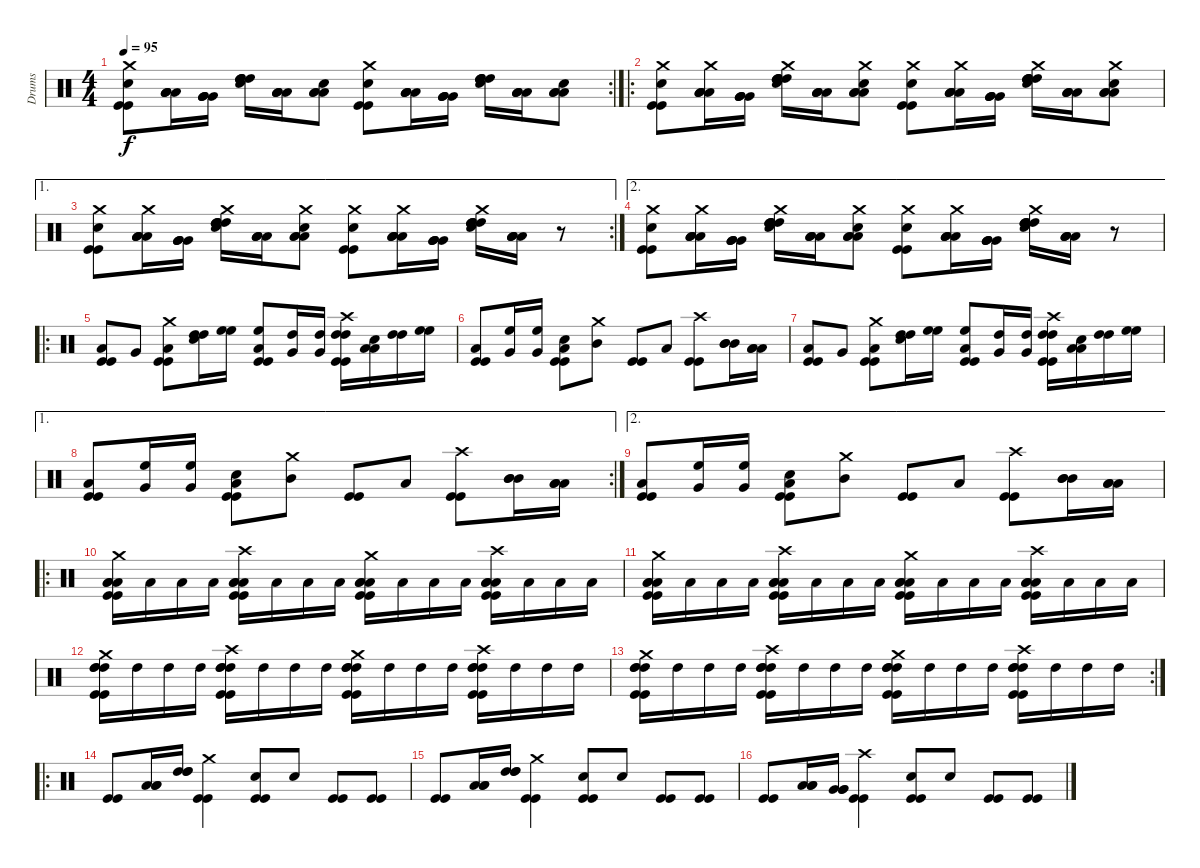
\track ("Drums" "Drums") {instrument percussion}
\staff {score}
\articulation defaults
\rc 2
\ts (4 4)
\tempo 95
\clef neutral
\ks c
("Crash medium (hit)" "Snare (hit) 2" "Kick (hit)" "Kick (hit)").8{dy f} ("Low Tom (hit)" "Low Tom (hit)" "Low Tom (hit)" "Low Tom (hit)").16 ("Very Low Tom (hit)" "Very Low Tom (hit)" "Very Low Tom (hit)" "Very Low Tom (hit)").16 ("High Tom (hit)" "High Tom (hit)" "High Tom (hit)" "High Tom (hit)" "Snare (hit) 2").16 ("Low Tom (hit)" "Low Tom (hit)" "Low Tom (hit)" "Low Tom (hit)").16 ("Snare (hit)" "Low Floor Tom (hit)" "Low Floor Tom (hit)" "Low Floor Tom (hit)").8 ("Crash medium (hit)" "Snare (hit) 2" "Kick (hit)" "Kick (hit)").8 ("Low Tom (hit)" "Low Tom (hit)" "Low Tom (hit)" "Low Tom (hit)").16 ("Very Low Tom (hit)" "Very Low Tom (hit)" "Very Low Tom (hit)" "Very Low Tom (hit)").16 ("High Tom (hit)" "High Tom (hit)" "High Tom (hit)" "High Tom (hit)" "Snare (hit) 2").16 ("Low Tom (hit)" "Low Tom (hit)" "Low Tom (hit)" "Low Tom (hit)").16 ("Snare (hit)" "Low Floor Tom (hit)" "Low Floor Tom (hit)" "Low Floor Tom (hit)").8 |
\ro
("Crash medium (hit)" "Snare (hit) 2" "Kick (hit)" "Kick (hit)").8 ("Crash medium (hit)" "Low Tom (hit)" "Low Tom (hit)" "Low Tom (hit)" "Low Tom (hit)").16 ("Very Low Tom (hit)" "Very Low Tom (hit)" "Very Low Tom (hit)" "Very Low Tom (hit)").16 ("Crash medium (hit)" "High Tom (hit)" "High Tom (hit)" "High Tom (hit)" "High Tom (hit)" "Snare (hit) 2").16 ("Low Tom (hit)" "Low Tom (hit)" "Low Tom (hit)" "Low Tom (hit)").16 ("Crash medium (hit)" "Snare (hit)" "Low Floor Tom (hit)" "Low Floor Tom (hit)" "Low Floor Tom (hit)").8 ("Crash medium (hit)" "Snare (hit) 2" "Kick (hit)" "Kick (hit)").8 ("Crash medium (hit)" "Low Tom (hit)" "Low Tom (hit)" "Low Tom (hit)" "Low Tom (hit)").16 ("Very Low Tom (hit)" "Very Low Tom (hit)" "Very Low Tom (hit)" "Very Low Tom (hit)").16 ("Crash medium (hit)" "High Tom (hit)" "High Tom (hit)" "High Tom (hit)" "High Tom (hit)" "Snare (hit) 2").16 ("Low Tom (hit)" "Low Tom (hit)" "Low Tom (hit)" "Low Tom (hit)").16 ("Crash medium (hit)" "Snare (hit)" "Low Floor Tom (hit)" "Low Floor Tom (hit)" "Low Floor Tom (hit)").8 |
\ae 1
\rc 2
("Crash medium (hit)" "Snare (hit) 2" "Kick (hit)" "Kick (hit)").8 ("Crash medium (hit)" "Low Tom (hit)" "Low Tom (hit)" "Low Tom (hit)" "Low Tom (hit)").16 ("Very Low Tom (hit)" "Very Low Tom (hit)" "Very Low Tom (hit)" "Very Low Tom (hit)").16 ("Crash medium (hit)" "High Tom (hit)" "High Tom (hit)" "High Tom (hit)" "High Tom (hit)" "Snare (hit) 2").16 ("Low Tom (hit)" "Low Tom (hit)" "Low Tom (hit)" "Low Tom (hit)").16 ("Crash medium (hit)" "Snare (hit)" "Low Floor Tom (hit)" "Low Floor Tom (hit)" "Low Floor Tom (hit)").8 ("Crash medium (hit)" "Snare (hit) 2" "Kick (hit)" "Kick (hit)").8 ("Crash medium (hit)" "Low Tom (hit)" "Low Tom (hit)" "Low Tom (hit)" "Low Tom (hit)").16 ("Very Low Tom (hit)" "Very Low Tom (hit)" "Very Low Tom (hit)" "Very Low Tom (hit)").16 ("Crash medium (hit)" "High Tom (hit)" "High Tom (hit)" "High Tom (hit)" "High Tom (hit)" "Snare (hit) 2").16 ("Low Tom (hit)" "Low Tom (hit)" "Low Tom (hit)" "Low Tom (hit)").16 r.8 |
\ae 2
("Crash medium (hit)" "Snare (hit) 2" "Kick (hit)" "Kick (hit)").8 ("Crash medium (hit)" "Low Tom (hit)" "Low Tom (hit)" "Low Tom (hit)" "Low Tom (hit)").16 ("Very Low Tom (hit)" "Very Low Tom (hit)" "Very Low Tom (hit)" "Very Low Tom (hit)").16 ("Crash medium (hit)" "High Tom (hit)" "High Tom (hit)" "High Tom (hit)" "High Tom (hit)" "Snare (hit) 2").16 ("Low Tom (hit)" "Low Tom (hit)" "Low Tom (hit)" "Low Tom (hit)").16 ("Crash medium (hit)" "Snare (hit)" "Low Floor Tom (hit)" "Low Floor Tom (hit)" "Low Floor Tom (hit)").8 ("Crash medium (hit)" "Snare (hit) 2" "Kick (hit)" "Kick (hit)").8 ("Crash medium (hit)" "Low Tom (hit)" "Low Tom (hit)" "Low Tom (hit)" "Low Tom (hit)").16 ("Very Low Tom (hit)" "Very Low Tom (hit)" "Very Low Tom (hit)" "Very Low Tom (hit)").16 ("Crash medium (hit)" "High Tom (hit)" "High Tom (hit)" "High Tom (hit)" "High Tom (hit)" "Snare (hit) 2").16 ("Low Tom (hit)" "Low Tom (hit)" "Low Tom (hit)" "Low Tom (hit)").16 r.8 |
\ro
("Low Tom (hit)" "Kick (hit)" "Kick (hit)").8 "Very Low Tom (hit)".8 ("Crash medium (hit)" "Low Tom (hit)" "Kick (hit)" "Kick (hit)").8 ("Snare (hit) 2" "High Tom (hit)" "High Tom (hit)").16 ("High Floor Tom (hit)" "High Floor Tom (hit)").16 ("Kick (hit)" "Low Tom (hit)" "High Floor Tom (hit)" "Kick (hit)").8 ("Very Low Tom (hit)" "High Tom (hit)").16 ("Very Low Tom (hit)" "High Tom (hit)").16 ("Kick (hit)" "Crash high (hit)" "High Tom (hit)" "High Tom (hit)" "Kick (hit)").16 ("Snare (hit) 2" "Low Tom (hit)" "Low Tom (hit)").16 ("High Tom (hit)" "High Tom (hit)").16 ("High Floor Tom (hit)" "High Floor Tom (hit)").16 |
("Low Tom (hit)" "Kick (hit)" "Kick (hit)").8 ("Very Low Tom (hit)" "High Floor Tom (hit)").16 ("Very Low Tom (hit)" "High Floor Tom (hit)").16 ("Snare (hit) 2" "Low Tom (hit)" "Kick (hit)" "Kick (hit)").8 ("Crash medium (hit)" "Mid Tom (hit)").8 ("Kick (hit)" "Kick (hit)").8 "Low Tom (hit)".8 ("Crash high (hit)" "Kick (hit)" "Kick (hit)").8 ("Mid Tom (hit)" "Mid Tom (hit)" "Mid Tom (hit)").16 ("Low Tom (hit)" "Low Tom (hit)" "Low Tom (hit)").16 |
("Low Tom (hit)" "Kick (hit)" "Kick (hit)").8 "Very Low Tom (hit)".8 ("Crash medium (hit)" "Low Tom (hit)" "Kick (hit)" "Kick (hit)").8 ("Snare (hit) 2" "High Tom (hit)" "High Tom (hit)").16 ("High Floor Tom (hit)" "High Floor Tom (hit)").16 ("Kick (hit)" "Low Tom (hit)" "High Floor Tom (hit)" "Kick (hit)").8 ("Very Low Tom (hit)" "High Tom (hit)").16 ("Very Low Tom (hit)" "High Tom (hit)").16 ("Kick (hit)" "Crash high (hit)" "High Tom (hit)" "High Tom (hit)" "Kick (hit)").16 ("Snare (hit) 2" "Low Tom (hit)" "Low Tom (hit)").16 ("High Tom (hit)" "High Tom (hit)").16 ("High Floor Tom (hit)" "High Floor Tom (hit)").16 |
\ae 1
\rc 2
("Low Tom (hit)" "Kick (hit)" "Kick (hit)").8 ("Very Low Tom (hit)" "High Floor Tom (hit)").16 ("Very Low Tom (hit)" "High Floor Tom (hit)").16 ("Snare (hit) 2" "Low Tom (hit)" "Kick (hit)" "Kick (hit)").8 ("Crash medium (hit)" "Mid Tom (hit)").8 ("Kick (hit)" "Kick (hit)").8 "Low Tom (hit)".8 ("Crash high (hit)" "Kick (hit)" "Kick (hit)").8 ("Mid Tom (hit)" "Mid Tom (hit)" "Mid Tom (hit)").16 ("Low Tom (hit)" "Low Tom (hit)" "Low Tom (hit)").16 |
\ae 2
("Low Tom (hit)" "Kick (hit)" "Kick (hit)").8 ("Very Low Tom (hit)" "High Floor Tom (hit)").16 ("Very Low Tom (hit)" "High Floor Tom (hit)").16 ("Snare (hit) 2" "Low Tom (hit)" "Kick (hit)" "Kick (hit)").8 ("Crash medium (hit)" "Mid Tom (hit)").8 ("Kick (hit)" "Kick (hit)").8 "Low Tom (hit)".8 ("Crash high (hit)" "Kick (hit)" "Kick (hit)").8 ("Mid Tom (hit)" "Mid Tom (hit)" "Mid Tom (hit)").16 ("Low Tom (hit)" "Low Tom (hit)" "Low Tom (hit)").16 |
\ro
("Crash medium (hit)" "Low Tom (hit)" "Low Tom (hit)" "Low Tom (hit)" "Kick (hit)" "Kick (hit)").16 "Low Tom (hit)".16 "Low Tom (hit)".16 "Low Tom (hit)".16 ("Crash high (hit)" "Low Tom (hit)" "Low Tom (hit)" "Low Tom (hit)" "Kick (hit)" "Kick (hit)").16 "Low Tom (hit)".16 "Low Tom (hit)".16 "Low Tom (hit)".16 ("Crash medium (hit)" "Low Tom (hit)" "Low Tom (hit)" "Low Tom (hit)" "Kick (hit)" "Kick (hit)").16 "Low Tom (hit)".16 "Low Tom (hit)".16 "Low Tom (hit)".16 ("Crash high (hit)" "Low Tom (hit)" "Low Tom (hit)" "Low Tom (hit)" "Kick (hit)" "Kick (hit)").16 "Low Tom (hit)".16 "Low Tom (hit)".16 "Low Tom (hit)".16 |
("Crash medium (hit)" "Low Tom (hit)" "Low Tom (hit)" "Low Tom (hit)" "Kick (hit)" "Kick (hit)").16 "Low Tom (hit)".16 "Low Tom (hit)".16 "Low Tom (hit)".16 ("Crash high (hit)" "Low Tom (hit)" "Low Tom (hit)" "Low Tom (hit)" "Kick (hit)" "Kick (hit)").16 "Low Tom (hit)".16 "Low Tom (hit)".16 "Low Tom (hit)".16 ("Crash medium (hit)" "Low Tom (hit)" "Low Tom (hit)" "Low Tom (hit)" "Kick (hit)" "Kick (hit)").16 "Low Tom (hit)".16 "Low Tom (hit)".16 "Low Tom (hit)".16 ("Crash high (hit)" "Low Tom (hit)" "Low Tom (hit)" "Low Tom (hit)" "Kick (hit)" "Kick (hit)").16 "Low Tom (hit)".16 "Low Tom (hit)".16 "Low Tom (hit)".16 |
("Crash medium (hit)" "High Tom (hit)" "High Tom (hit)" "High Tom (hit)" "Kick (hit)" "Kick (hit)").16 "High Tom (hit)".16 "High Tom (hit)".16 "High Tom (hit)".16 ("Crash high (hit)" "High Tom (hit)" "High Tom (hit)" "High Tom (hit)" "Kick (hit)" "Kick (hit)").16 "High Tom (hit)".16 "High Tom (hit)".16 "High Tom (hit)".16 ("Crash medium (hit)" "High Tom (hit)" "High Tom (hit)" "High Tom (hit)" "Kick (hit)" "Kick (hit)").16 "High Tom (hit)".16 "High Tom (hit)".16 "High Tom (hit)".16 ("Crash high (hit)" "High Tom (hit)" "High Tom (hit)" "High Tom (hit)" "Kick (hit)" "Kick (hit)").16 "High Tom (hit)".16 "High Tom (hit)".16 "High Tom (hit)".16 |
\rc 2
("Crash medium (hit)" "High Tom (hit)" "High Tom (hit)" "High Tom (hit)" "Kick (hit)" "Kick (hit)").16 "High Tom (hit)".16 "High Tom (hit)".16 "High Tom (hit)".16 ("Crash high (hit)" "High Tom (hit)" "High Tom (hit)" "High Tom (hit)" "Kick (hit)" "Kick (hit)").16 "High Tom (hit)".16 "High Tom (hit)".16 "High Tom (hit)".16 ("Crash medium (hit)" "High Tom (hit)" "High Tom (hit)" "High Tom (hit)" "Kick (hit)" "Kick (hit)").16 "High Tom (hit)".16 "High Tom (hit)".16 "High Tom (hit)".16 ("Crash high (hit)" "High Tom (hit)" "High Tom (hit)" "High Tom (hit)" "Kick (hit)" "Kick (hit)").16 "High Tom (hit)".16 "High Tom (hit)".16 "High Tom (hit)".16 |
\ro
("Kick (hit)" "Kick (hit)").8 ("Low Tom (hit)" "Low Tom (hit)" "Low Tom (hit)").16 ("High Tom (hit)" "High Tom (hit)" "High Tom (hit)").16 ("Crash medium (hit)" "Kick (hit)" "Kick (hit)").4 ("Snare (hit) 2" "Kick (hit)" "Kick (hit)").8 "Snare (hit) 2".8 ("Kick (hit)" "Kick (hit)").8 ("Kick (hit)" "Kick (hit)").8 |
("Kick (hit)" "Kick (hit)").8 ("Low Tom (hit)" "Low Tom (hit)" "Low Tom (hit)").16 ("High Tom (hit)" "High Tom (hit)" "High Tom (hit)").16 ("Crash medium (hit)" "Kick (hit)" "Kick (hit)").4 ("Snare (hit) 2" "Kick (hit)" "Kick (hit)").8 "Snare (hit) 2".8 ("Kick (hit)" "Kick (hit)").8 ("Kick (hit)" "Kick (hit)").8 |
("Kick (hit)" "Kick (hit)").8 ("Low Floor Tom (hit)" "Low Floor Tom (hit)" "Low Floor Tom (hit)").16 ("Very Low Tom (hit)" "Very Low Tom (hit)" "Very Low Tom (hit)").16 ("Crash high (hit)" "Kick (hit)" "Kick (hit)").4 ("Snare (hit) 2" "Kick (hit)" "Kick (hit)").8 "Snare (hit) 2".8 ("Kick (hit)" "Kick (hit)").8 ("Kick (hit)" "Kick (hit)").8
